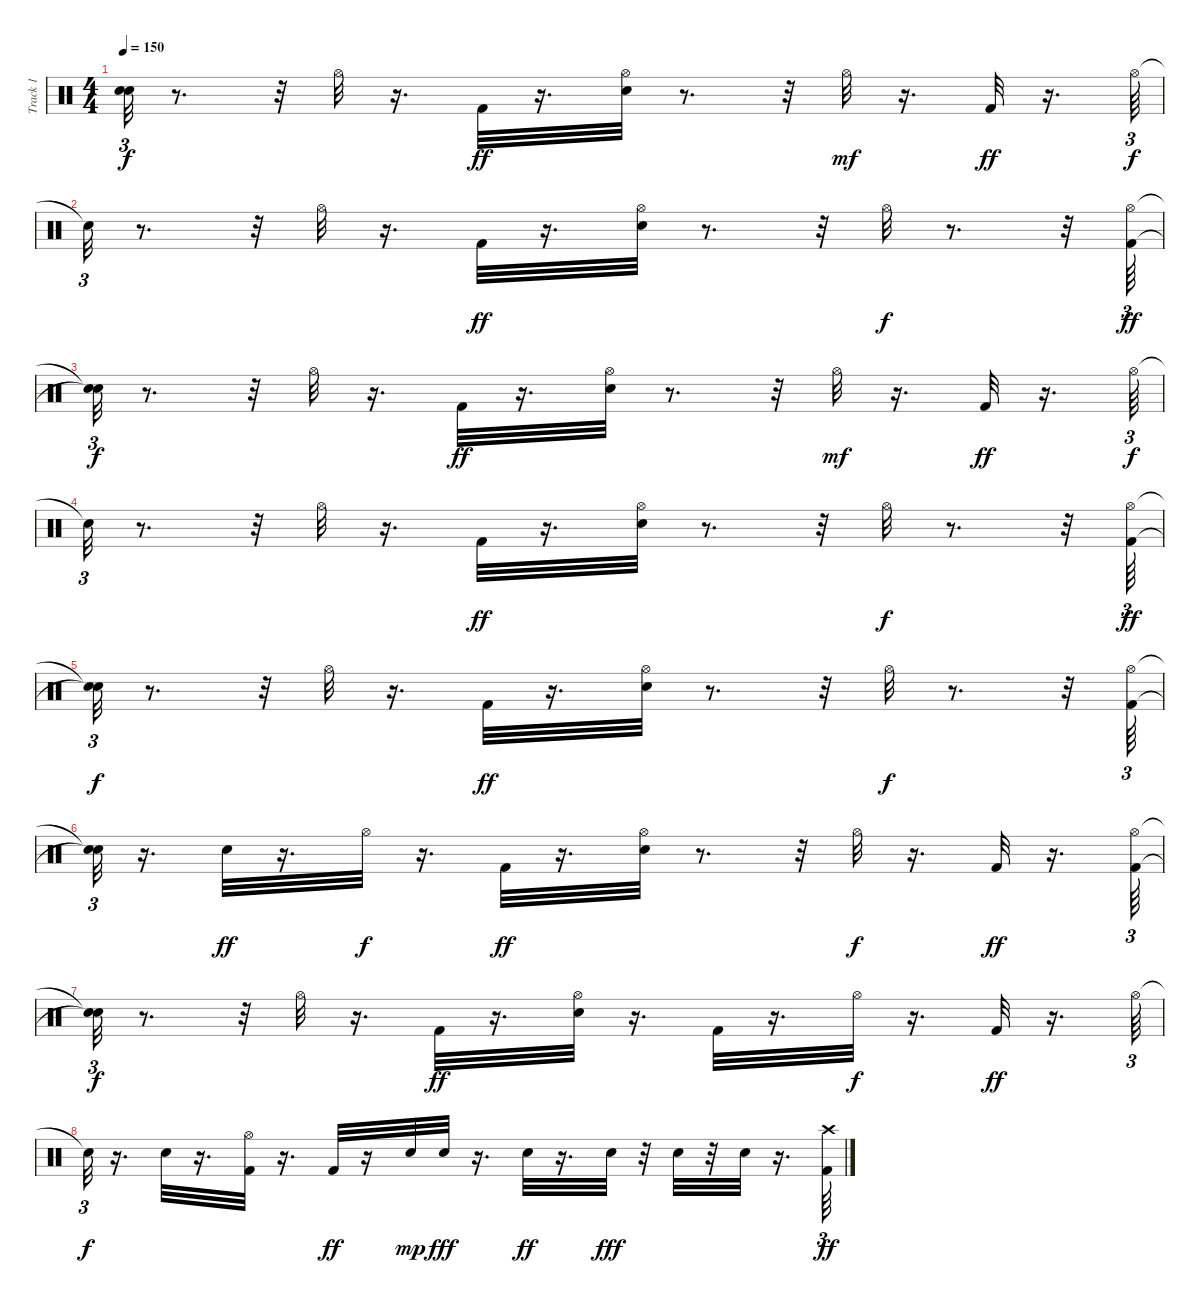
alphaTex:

\track ("Track 1" "Track 1") {instrument percussion}
\staff {score}
\articulation defaults
\ts (4 4)
\tempo 150
\clef neutral
\ks c
("Snare (hit)"{t} "Snare (hit)"{t}).32{tu (3 2) dy f} r.8{d} r.32 "Hi-Hat (open)".32 r.16{d} "Kick (hit) 2".32{dy ff} r.16{d} ("Hi-Hat (open)" "Snare (hit) 2").32 r.8{d} r.32 "Hi-Hat (open)".32{dy mf} r.16{d} "Kick (hit) 2".32{dy ff} r.16{d} "Hi-Hat (open)".64{tu (3 2) dy f} |
"Snare (hit)"{t}.32{tu (3 2)} r.8{d} r.32 "Hi-Hat (open)".32 r.16{d} "Kick (hit) 2".32{dy ff} r.16{d} ("Hi-Hat (open)" "Snare (hit) 2").32 r.8{d} r.32 "Hi-Hat (open)".32{dy f} r.8{d} r.32 ("Hi-Hat (open)" "Kick (hit) 2").64{tu (3 2) dy ff} |
("Snare (hit)"{t} "Snare (hit)"{t}).32{tu (3 2) dy f} r.8{d} r.32 "Hi-Hat (open)".32 r.16{d} "Kick (hit) 2".32{dy ff} r.16{d} ("Hi-Hat (open)" "Snare (hit) 2").32 r.8{d} r.32 "Hi-Hat (open)".32{dy mf} r.16{d} "Kick (hit) 2".32{dy ff} r.16{d} "Hi-Hat (open)".64{tu (3 2) dy f} |
"Snare (hit)"{t}.32{tu (3 2)} r.8{d} r.32 "Hi-Hat (open)".32 r.16{d} "Kick (hit) 2".32{dy ff} r.16{d} ("Hi-Hat (open)" "Snare (hit) 2").32 r.8{d} r.32 "Hi-Hat (open)".32{dy f} r.8{d} r.32 ("Hi-Hat (open)" "Kick (hit) 2").64{tu (3 2) dy ff} |
("Snare (hit)"{t} "Snare (hit)"{t}).32{tu (3 2) dy f} r.8{d} r.32 "Hi-Hat (open)".32 r.16{d} "Kick (hit) 2".32{dy ff} r.16{d} ("Hi-Hat (open)" "Snare (hit) 2").32 r.8{d} r.32 "Hi-Hat (open)".32{dy f} r.8{d} r.32 ("Hi-Hat (open)" "Kick (hit) 2").64{tu (3 2)} |
("Snare (hit)"{t} "Snare (hit)"{t}).32{tu (3 2)} r.16{d} "Snare (hit) 2".32{dy ff} r.16{d} "Hi-Hat (open)".32{dy f} r.16{d} "Kick (hit) 2".32{dy ff} r.16{d} ("Snare (hit) 2" "Hi-Hat (open)").32 r.8{d} r.32 "Hi-Hat (open)".32{dy f} r.16{d} "Kick (hit) 2".32{dy ff} r.16{d} ("Hi-Hat (open)" "Kick (hit) 2").64{tu (3 2)} |
("Snare (hit)"{t} "Snare (hit)"{t}).32{tu (3 2) dy f} r.8{d} r.32 "Hi-Hat (open)".32 r.16{d} "Kick (hit) 2".32{dy ff} r.16{d} ("Hi-Hat (open)" "Snare (hit) 2").32 r.16{d} "Kick (hit) 2".32 r.16{d} "Hi-Hat (open)".32{dy f} r.16{d} "Kick (hit) 2".32{dy ff} r.16{d} "Hi-Hat (open)".64{tu (3 2)} |
"Snare (hit)"{t}.32{tu (3 2) dy f} r.16{d} "Snare (hit) 2".32 r.16{d} ("Kick (hit) 2" "Hi-Hat (open)").32 r.16{d} "Kick (hit) 2".32{dy ff} r.16 "Snare (hit) 2".32{dy mp} "Electric Snare (hit)".32{dy fff} r.16{d} "Snare (hit) 2".32{dy ff} r.16{d} "Electric Snare (hit)".32{dy fff} r.32 "Snare (hit) 2".32 r.32 "Snare (hit) 2".32 r.16{d} ("Crash high (hit)" "Kick (hit) 2").64{tu (3 2) dy ff}
